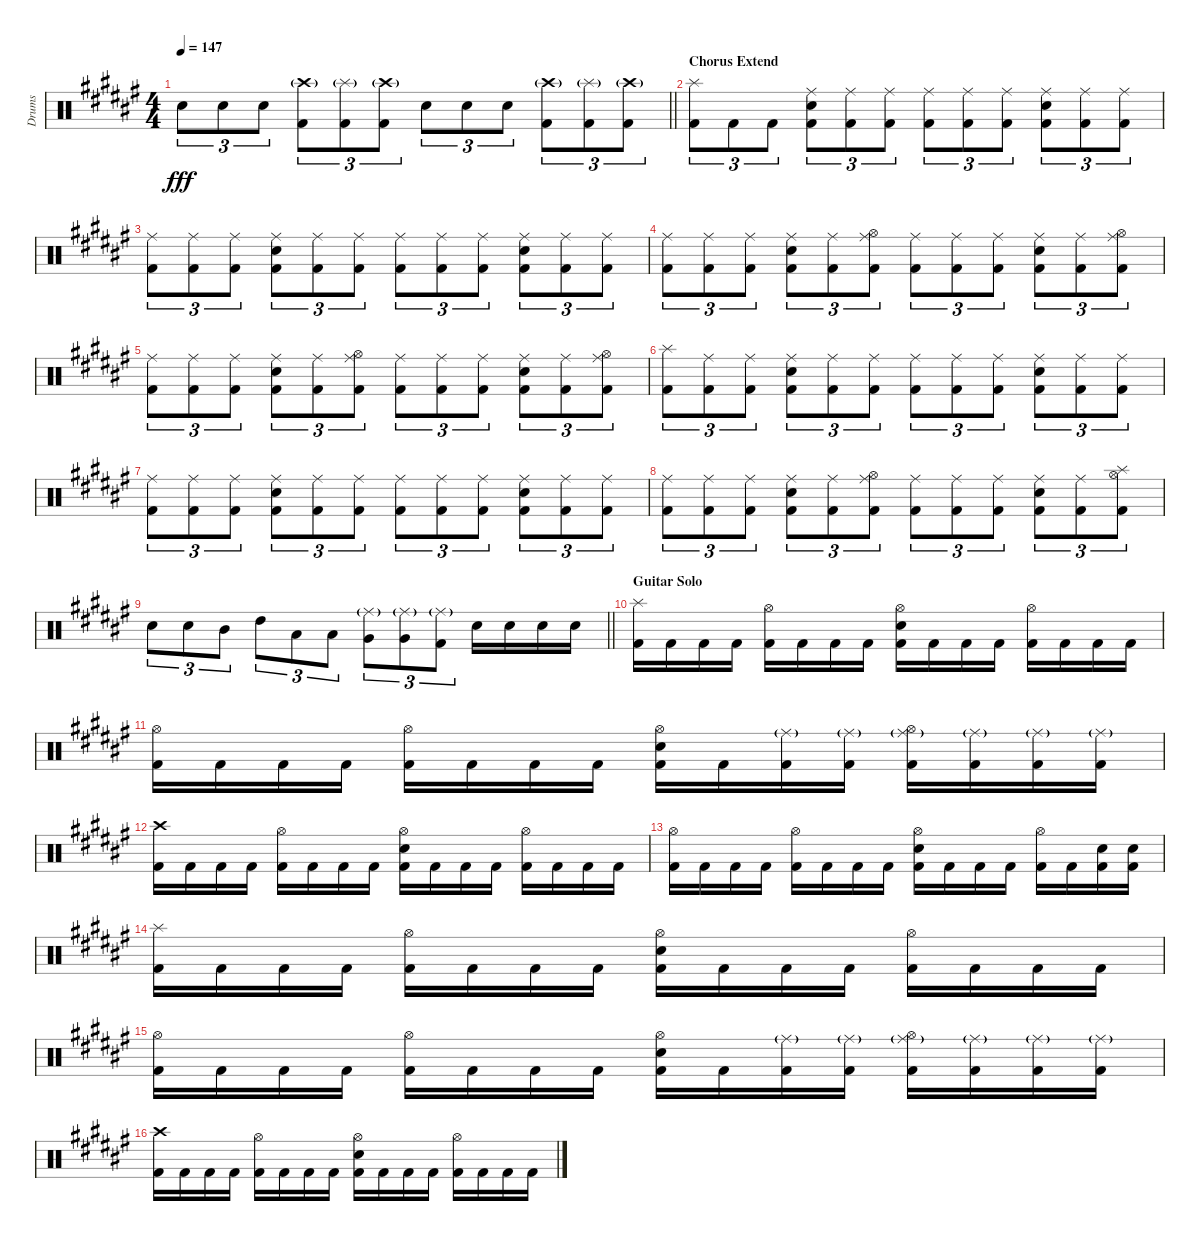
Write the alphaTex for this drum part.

\track ("Drums" "Drums") {instrument percussion}
\staff {score}
\articulation defaults
\ts (4 4)
\tempo 147
\clef neutral
\barLineRight lightlight
\ks d#minor "Snare (hit) 2".8{tu (3 2) dy fff} "Snare (hit) 2".8{tu (3 2)} "Snare (hit) 2".8{tu (3 2)}
("Crash high (hit)"{g} "Kick (hit) 2").8{tu (3 2)} ("Splash (hit)"{g} "Kick (hit) 2").8{tu (3 2)} ("Crash high (hit)"{g} "Kick (hit) 2").8{tu (3 2)} "Snare (hit) 2".8{tu (3 2)} "Snare (hit) 2".8{tu (3 2)} "Snare (hit) 2".8{tu (3 2)} ("Crash high (hit)"{g} "Kick (hit) 2").8{tu (3 2)} ("Splash (hit)"{g} "Kick (hit) 2").8{tu (3 2)} ("Crash high (hit)"{g} "Kick (hit) 2").8{tu (3 2)} |
\section ("" "Chorus Extend")
("Splash (hit)" "Kick (hit) 2").8{tu (3 2)} "Kick (hit) 2".8{tu (3 2)} "Kick (hit) 2".8{tu (3 2)} ("Ride (middle)" "Snare (hit) 2" "Kick (hit) 2").8{tu (3 2)} ("Ride (middle)" "Kick (hit) 2").8{tu (3 2)} ("Ride (middle)" "Kick (hit) 2").8{tu (3 2)} ("Ride (middle)" "Kick (hit) 2").8{tu (3 2)} ("Ride (middle)" "Kick (hit) 2").8{tu (3 2)} ("Ride (middle)" "Kick (hit) 2").8{tu (3 2)} ("Ride (middle)" "Snare (hit) 2" "Kick (hit) 2").8{tu (3 2)} ("Ride (middle)" "Kick (hit) 2").8{tu (3 2)} ("Ride (middle)" "Kick (hit) 2").8{tu (3 2)} |
("Ride (middle)" "Kick (hit) 2").8{tu (3 2)} ("Ride (middle)" "Kick (hit) 2").8{tu (3 2)} ("Ride (middle)" "Kick (hit) 2").8{tu (3 2)} ("Ride (middle)" "Snare (hit) 2" "Kick (hit) 2").8{tu (3 2)} ("Ride (middle)" "Kick (hit) 2").8{tu (3 2)} ("Ride (middle)" "Kick (hit) 2").8{tu (3 2)} ("Ride (middle)" "Kick (hit) 2").8{tu (3 2)} ("Ride (middle)" "Kick (hit) 2").8{tu (3 2)} ("Ride (middle)" "Kick (hit) 2").8{tu (3 2)} ("Ride (middle)" "Snare (hit) 2" "Kick (hit) 2").8{tu (3 2)} ("Ride (middle)" "Kick (hit) 2").8{tu (3 2)} ("Ride (middle)" "Kick (hit) 2").8{tu (3 2)} |
("Ride (middle)" "Kick (hit) 2").8{tu (3 2)} ("Ride (middle)" "Kick (hit) 2").8{tu (3 2)} ("Ride (middle)" "Kick (hit) 2").8{tu (3 2)} ("Ride (middle)" "Snare (hit) 2" "Kick (hit) 2").8{tu (3 2)} ("Ride (middle)" "Kick (hit) 2").8{tu (3 2)} ("Ride (middle)" "Hi-Hat (open)" "Kick (hit) 2").8{tu (3 2)} ("Ride (middle)" "Kick (hit) 2").8{tu (3 2)} ("Ride (middle)" "Kick (hit) 2").8{tu (3 2)} ("Ride (middle)" "Kick (hit) 2").8{tu (3 2)} ("Ride (middle)" "Snare (hit) 2" "Kick (hit) 2").8{tu (3 2)} ("Ride (middle)" "Kick (hit) 2").8{tu (3 2)} ("Ride (middle)" "Hi-Hat (open)" "Kick (hit) 2").8{tu (3 2)} |
("Ride (middle)" "Kick (hit) 2").8{tu (3 2)} ("Ride (middle)" "Kick (hit) 2").8{tu (3 2)} ("Ride (middle)" "Kick (hit) 2").8{tu (3 2)} ("Ride (middle)" "Snare (hit) 2" "Kick (hit) 2").8{tu (3 2)} ("Ride (middle)" "Kick (hit) 2").8{tu (3 2)} ("Ride (middle)" "Hi-Hat (open)" "Kick (hit) 2").8{tu (3 2)} ("Ride (middle)" "Kick (hit) 2").8{tu (3 2)} ("Ride (middle)" "Kick (hit) 2").8{tu (3 2)} ("Ride (middle)" "Kick (hit) 2").8{tu (3 2)} ("Ride (middle)" "Snare (hit) 2" "Kick (hit) 2").8{tu (3 2)} ("Ride (middle)" "Kick (hit) 2").8{tu (3 2)} ("Ride (middle)" "Hi-Hat (open)" "Kick (hit) 2").8{tu (3 2)} |
("Splash (hit)" "Kick (hit) 2").8{tu (3 2)} ("Ride (middle)" "Kick (hit) 2").8{tu (3 2)} ("Ride (middle)" "Kick (hit) 2").8{tu (3 2)} ("Ride (middle)" "Snare (hit) 2" "Kick (hit) 2").8{tu (3 2)} ("Ride (middle)" "Kick (hit) 2").8{tu (3 2)} ("Ride (middle)" "Kick (hit) 2").8{tu (3 2)} ("Ride (middle)" "Kick (hit) 2").8{tu (3 2)} ("Ride (middle)" "Kick (hit) 2").8{tu (3 2)} ("Ride (middle)" "Kick (hit) 2").8{tu (3 2)} ("Ride (middle)" "Snare (hit) 2" "Kick (hit) 2").8{tu (3 2)} ("Ride (middle)" "Kick (hit) 2").8{tu (3 2)} ("Ride (middle)" "Kick (hit) 2").8{tu (3 2)} |
("Ride (middle)" "Kick (hit) 2").8{tu (3 2)} ("Ride (middle)" "Kick (hit) 2").8{tu (3 2)} ("Ride (middle)" "Kick (hit) 2").8{tu (3 2)} ("Ride (middle)" "Snare (hit) 2" "Kick (hit) 2").8{tu (3 2)} ("Ride (middle)" "Kick (hit) 2").8{tu (3 2)} ("Ride (middle)" "Kick (hit) 2").8{tu (3 2)} ("Ride (middle)" "Kick (hit) 2").8{tu (3 2)} ("Ride (middle)" "Kick (hit) 2").8{tu (3 2)} ("Ride (middle)" "Kick (hit) 2").8{tu (3 2)} ("Ride (middle)" "Snare (hit) 2" "Kick (hit) 2").8{tu (3 2)} ("Ride (middle)" "Kick (hit) 2").8{tu (3 2)} ("Ride (middle)" "Kick (hit) 2").8{tu (3 2)} |
("Ride (middle)" "Kick (hit) 2").8{tu (3 2)} ("Ride (middle)" "Kick (hit) 2").8{tu (3 2)} ("Ride (middle)" "Kick (hit) 2").8{tu (3 2)} ("Ride (middle)" "Snare (hit) 2" "Kick (hit) 2").8{tu (3 2)} ("Ride (middle)" "Kick (hit) 2").8{tu (3 2)} ("Ride (middle)" "Hi-Hat (open)" "Kick (hit) 2").8{tu (3 2)} ("Ride (middle)" "Kick (hit) 2").8{tu (3 2)} ("Ride (middle)" "Kick (hit) 2").8{tu (3 2)} ("Ride (middle)" "Kick (hit) 2").8{tu (3 2)} ("Ride (middle)" "Snare (hit) 2" "Kick (hit) 2").8{tu (3 2)} ("Ride (middle)" "Kick (hit) 2").8{tu (3 2)} ("Splash (hit)" "Hi-Hat (open)" "Kick (hit) 2").8{tu (3 2)} |
\barLineRight lightlight "Snare (hit) 2".8{tu (3 2)} "Snare (hit) 2".8{tu (3 2)} "Mid Tom (hit)".8{tu (3 2)} "High Tom (hit)".8{tu (3 2)} "Low Tom (hit)".8{tu (3 2)} "Low Tom (hit)".8{tu (3 2)}
("Ride (middle)"{g} "Very Low Tom (hit)").8{tu (3 2)} ("Ride (middle)"{g} "Very Low Tom (hit)").8{tu (3 2)} ("Ride (middle)"{g} "Kick (hit) 2").8{tu (3 2)} "Snare (hit) 2".16 "Snare (hit) 2".16 "Snare (hit) 2".16 "Snare (hit) 2".16 |
\section ("" "Guitar Solo")
("Splash (hit)" "Kick (hit) 2").16 "Kick (hit) 2".16 "Kick (hit) 2".16 "Kick (hit) 2".16 ("Hi-Hat (open)" "Kick (hit) 2").16 "Kick (hit) 2".16 "Kick (hit) 2".16 "Kick (hit) 2".16 ("Hi-Hat (open)" "Snare (hit) 2" "Kick (hit) 2").16 "Kick (hit) 2".16 "Kick (hit) 2".16 "Kick (hit) 2".16 ("Hi-Hat (open)" "Kick (hit) 2").16 "Kick (hit) 2".16 "Kick (hit) 2".16 "Kick (hit) 2".16 |
("Hi-Hat (open)" "Kick (hit) 2").16 "Kick (hit) 2".16 "Kick (hit) 2".16 "Kick (hit) 2".16 ("Hi-Hat (open)" "Kick (hit) 2").16 "Kick (hit) 2".16 "Kick (hit) 2".16 "Kick (hit) 2".16 ("Hi-Hat (open)" "Snare (hit) 2" "Kick (hit) 2").16 "Kick (hit) 2".16 ("Ride (middle)"{g} "Kick (hit) 2").16 ("Ride (middle)"{g} "Kick (hit) 2").16 ("Ride (middle)"{g} "Hi-Hat (open)" "Kick (hit) 2").16 ("Ride (middle)"{g} "Kick (hit) 2").16 ("Ride (middle)"{g} "Kick (hit) 2").16 ("Ride (middle)"{g} "Kick (hit) 2").16 |
("Crash high (hit)" "Kick (hit) 2").16 "Kick (hit) 2".16 "Kick (hit) 2".16 "Kick (hit) 2".16 ("Hi-Hat (open)" "Kick (hit) 2").16 "Kick (hit) 2".16 "Kick (hit) 2".16 "Kick (hit) 2".16 ("Hi-Hat (open)" "Snare (hit) 2" "Kick (hit) 2").16 "Kick (hit) 2".16 "Kick (hit) 2".16 "Kick (hit) 2".16 ("Hi-Hat (open)" "Kick (hit) 2").16 "Kick (hit) 2".16 "Kick (hit) 2".16 "Kick (hit) 2".16 |
("Hi-Hat (open)" "Kick (hit) 2").16 "Kick (hit) 2".16 "Kick (hit) 2".16 "Kick (hit) 2".16 ("Hi-Hat (open)" "Kick (hit) 2").16 "Kick (hit) 2".16 "Kick (hit) 2".16 "Kick (hit) 2".16 ("Hi-Hat (open)" "Snare (hit) 2" "Kick (hit) 2").16 "Kick (hit) 2".16 "Kick (hit) 2".16 "Kick (hit) 2".16 ("Hi-Hat (open)" "Kick (hit) 2").16 "Kick (hit) 2".16 ("Snare (hit) 2" "Kick (hit) 2").16 ("Snare (hit) 2" "Kick (hit) 2").16 |
("Splash (hit)" "Kick (hit) 2").16 "Kick (hit) 2".16 "Kick (hit) 2".16 "Kick (hit) 2".16 ("Hi-Hat (open)" "Kick (hit) 2").16 "Kick (hit) 2".16 "Kick (hit) 2".16 "Kick (hit) 2".16 ("Hi-Hat (open)" "Snare (hit) 2" "Kick (hit) 2").16 "Kick (hit) 2".16 "Kick (hit) 2".16 "Kick (hit) 2".16 ("Hi-Hat (open)" "Kick (hit) 2").16 "Kick (hit) 2".16 "Kick (hit) 2".16 "Kick (hit) 2".16 |
("Hi-Hat (open)" "Kick (hit) 2").16 "Kick (hit) 2".16 "Kick (hit) 2".16 "Kick (hit) 2".16 ("Hi-Hat (open)" "Kick (hit) 2").16 "Kick (hit) 2".16 "Kick (hit) 2".16 "Kick (hit) 2".16 ("Hi-Hat (open)" "Snare (hit) 2" "Kick (hit) 2").16 "Kick (hit) 2".16 ("Ride (middle)"{g} "Kick (hit) 2").16 ("Ride (middle)"{g} "Kick (hit) 2").16 ("Ride (middle)"{g} "Hi-Hat (open)" "Kick (hit) 2").16 ("Ride (middle)"{g} "Kick (hit) 2").16 ("Ride (middle)"{g} "Kick (hit) 2").16 ("Ride (middle)"{g} "Kick (hit) 2").16 |
("Crash high (hit)" "Kick (hit) 2").16 "Kick (hit) 2".16 "Kick (hit) 2".16 "Kick (hit) 2".16 ("Hi-Hat (open)" "Kick (hit) 2").16 "Kick (hit) 2".16 "Kick (hit) 2".16 "Kick (hit) 2".16 ("Hi-Hat (open)" "Snare (hit) 2" "Kick (hit) 2").16 "Kick (hit) 2".16 "Kick (hit) 2".16 "Kick (hit) 2".16 ("Hi-Hat (open)" "Kick (hit) 2").16 "Kick (hit) 2".16 "Kick (hit) 2".16 "Kick (hit) 2".16
